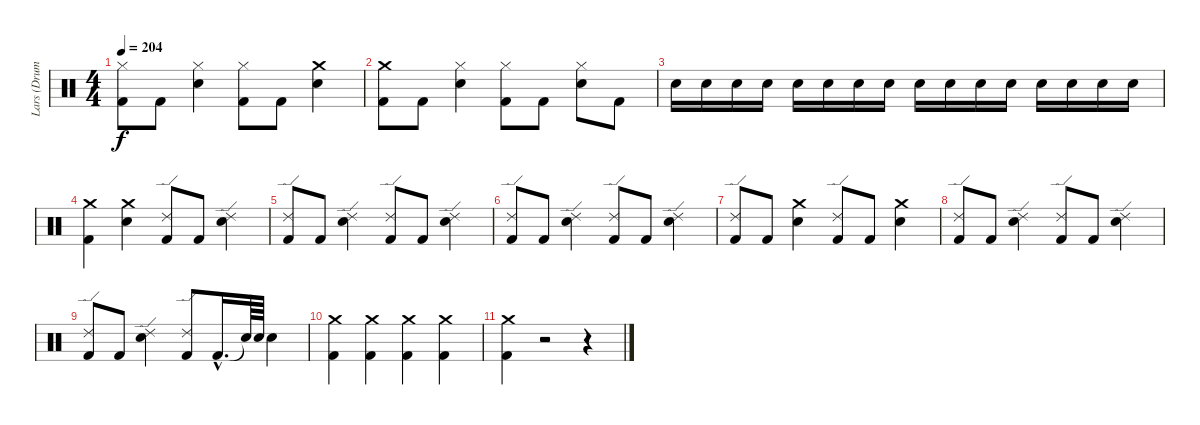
\track ("Lars (Drums)" "Lars (Drum") {instrument percussion}
\staff {score}
\articulation defaults
\ts (4 4)
\tempo 204
\clef neutral
\ks c
("Hi-Hat (closed)" "Kick (hit) 2").8{dy f} "Kick (hit) 2".8 ("Snare (hit) 2" "Hi-Hat (closed)").4 ("Hi-Hat (closed)" "Kick (hit) 2").8 "Kick (hit) 2".8 ("Crash medium (hit)" "Snare (hit) 2").4 |
("Crash medium (hit)" "Kick (hit) 2").8 "Kick (hit) 2".8 ("Snare (hit) 2" "Hi-Hat (closed)").4 ("Hi-Hat (closed)" "Kick (hit) 2").8 "Kick (hit) 2".8 ("Snare (hit) 2" "Hi-Hat (closed)").8 "Kick (hit) 2".8 |
"Snare (hit) 2".16 "Snare (hit) 2".16 "Snare (hit) 2".16 "Snare (hit) 2".16 "Snare (hit) 2".16 "Snare (hit) 2".16 "Snare (hit) 2".16 "Snare (hit) 2".16 "Snare (hit) 2".16 "Snare (hit) 2".16 "Snare (hit) 2".16 "Snare (hit) 2".16 "Snare (hit) 2".16 "Snare (hit) 2".16 "Snare (hit) 2".16 "Snare (hit) 2".16 |
("Kick (hit) 2" "Crash medium (hit)").4 ("Snare (hit) 2" "Crash medium (hit)").4 ("Kick (hit) 2" "Ride (edge) 2").8 "Kick (hit) 2".8 ("Snare (hit) 2" "Ride (edge) 2").4 |
("Ride (edge) 2" "Kick (hit) 2").8 "Kick (hit) 2".8 ("Snare (hit) 2" "Ride (edge) 2").4 ("Ride (edge) 2" "Kick (hit) 2").8 "Kick (hit) 2".8 ("Snare (hit) 2" "Ride (edge) 2").4 |
("Ride (edge) 2" "Kick (hit) 2").8 "Kick (hit) 2".8 ("Snare (hit) 2" "Ride (edge) 2").4 ("Ride (edge) 2" "Kick (hit) 2").8 "Kick (hit) 2".8 ("Snare (hit) 2" "Ride (edge) 2").4 |
("Ride (edge) 2" "Kick (hit) 2").8 "Kick (hit) 2".8 ("Snare (hit) 2" "Crash medium (hit)").4 ("Ride (edge) 2" "Kick (hit) 2").8 "Kick (hit) 2".8 ("Snare (hit) 2" "Crash medium (hit)").4 |
("Ride (edge) 2" "Kick (hit) 2").8 "Kick (hit) 2".8 ("Snare (hit) 2" "Ride (edge) 2").4 ("Ride (edge) 2" "Kick (hit) 2").8 "Kick (hit) 2".8 ("Snare (hit) 2" "Ride (edge) 2").4 |
("Ride (edge) 2" "Kick (hit) 2").8 "Kick (hit) 2".8 ("Snare (hit) 2" "Ride (edge) 2").4 ("Ride (edge) 2" "Kick (hit) 2").8 "Kick (hit) 2"{hac}.16{d} "Snare (hit)"{t}.64 "Snare (hit) 2".64 "Snare (hit) 2".4 |
("Crash medium (hit)" "Kick (hit) 2").4 ("Crash medium (hit)" "Kick (hit) 2").4 ("Crash medium (hit)" "Kick (hit) 2").4 ("Crash medium (hit)" "Kick (hit) 2").4 |
("Crash medium (hit)" "Kick (hit) 2").4 r.2 r.4
